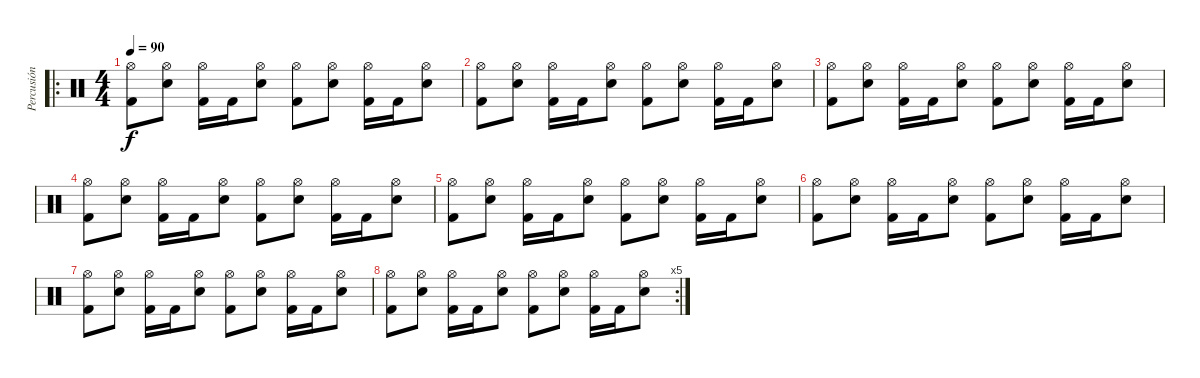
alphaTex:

\track ("Percusión" "Percusión") {instrument percussion}
\staff {score}
\articulation defaults
\ro
\ts (4 4)
\tempo 90
\clef neutral
\ks c
("Hi-Hat (open)" "Kick (hit) 2").8{dy f} ("Hi-Hat (open)" "Snare (hit) 2").8 ("Hi-Hat (open)" "Kick (hit) 2").16 "Kick (hit) 2".16 ("Hi-Hat (open)" "Snare (hit) 2").8 ("Hi-Hat (open)" "Kick (hit) 2").8 ("Hi-Hat (open)" "Snare (hit) 2").8 ("Hi-Hat (open)" "Kick (hit) 2").16 "Kick (hit) 2".16 ("Hi-Hat (open)" "Snare (hit) 2").8 |
("Hi-Hat (open)" "Kick (hit) 2").8 ("Hi-Hat (open)" "Snare (hit) 2").8 ("Hi-Hat (open)" "Kick (hit) 2").16 "Kick (hit) 2".16 ("Hi-Hat (open)" "Snare (hit) 2").8 ("Hi-Hat (open)" "Kick (hit) 2").8 ("Hi-Hat (open)" "Snare (hit) 2").8 ("Hi-Hat (open)" "Kick (hit) 2").16 "Kick (hit) 2".16 ("Hi-Hat (open)" "Snare (hit) 2").8 |
("Hi-Hat (open)" "Kick (hit) 2").8 ("Hi-Hat (open)" "Snare (hit) 2").8 ("Hi-Hat (open)" "Kick (hit) 2").16 "Kick (hit) 2".16 ("Hi-Hat (open)" "Snare (hit) 2").8 ("Hi-Hat (open)" "Kick (hit) 2").8 ("Hi-Hat (open)" "Snare (hit) 2").8 ("Hi-Hat (open)" "Kick (hit) 2").16 "Kick (hit) 2".16 ("Hi-Hat (open)" "Snare (hit) 2").8 |
("Hi-Hat (open)" "Kick (hit) 2").8 ("Hi-Hat (open)" "Snare (hit) 2").8 ("Hi-Hat (open)" "Kick (hit) 2").16 "Kick (hit) 2".16 ("Hi-Hat (open)" "Snare (hit) 2").8 ("Hi-Hat (open)" "Kick (hit) 2").8 ("Hi-Hat (open)" "Snare (hit) 2").8 ("Hi-Hat (open)" "Kick (hit) 2").16 "Kick (hit) 2".16 ("Hi-Hat (open)" "Snare (hit) 2").8 |
("Hi-Hat (open)" "Kick (hit) 2").8 ("Hi-Hat (open)" "Snare (hit) 2").8 ("Hi-Hat (open)" "Kick (hit) 2").16 "Kick (hit) 2".16 ("Hi-Hat (open)" "Snare (hit) 2").8 ("Hi-Hat (open)" "Kick (hit) 2").8 ("Hi-Hat (open)" "Snare (hit) 2").8 ("Hi-Hat (open)" "Kick (hit) 2").16 "Kick (hit) 2".16 ("Hi-Hat (open)" "Snare (hit) 2").8 |
("Hi-Hat (open)" "Kick (hit) 2").8 ("Hi-Hat (open)" "Snare (hit) 2").8 ("Hi-Hat (open)" "Kick (hit) 2").16 "Kick (hit) 2".16 ("Hi-Hat (open)" "Snare (hit) 2").8 ("Hi-Hat (open)" "Kick (hit) 2").8 ("Hi-Hat (open)" "Snare (hit) 2").8 ("Hi-Hat (open)" "Kick (hit) 2").16 "Kick (hit) 2".16 ("Hi-Hat (open)" "Snare (hit) 2").8 |
("Hi-Hat (open)" "Kick (hit) 2").8 ("Hi-Hat (open)" "Snare (hit) 2").8 ("Hi-Hat (open)" "Kick (hit) 2").16 "Kick (hit) 2".16 ("Hi-Hat (open)" "Snare (hit) 2").8 ("Hi-Hat (open)" "Kick (hit) 2").8 ("Hi-Hat (open)" "Snare (hit) 2").8 ("Hi-Hat (open)" "Kick (hit) 2").16 "Kick (hit) 2".16 ("Hi-Hat (open)" "Snare (hit) 2").8 |
\rc 5
("Hi-Hat (open)" "Kick (hit) 2").8 ("Hi-Hat (open)" "Snare (hit) 2").8 ("Hi-Hat (open)" "Kick (hit) 2").16 "Kick (hit) 2".16 ("Hi-Hat (open)" "Snare (hit) 2").8 ("Hi-Hat (open)" "Kick (hit) 2").8 ("Hi-Hat (open)" "Snare (hit) 2").8 ("Hi-Hat (open)" "Kick (hit) 2").16 "Kick (hit) 2".16 ("Hi-Hat (open)" "Snare (hit) 2").8
